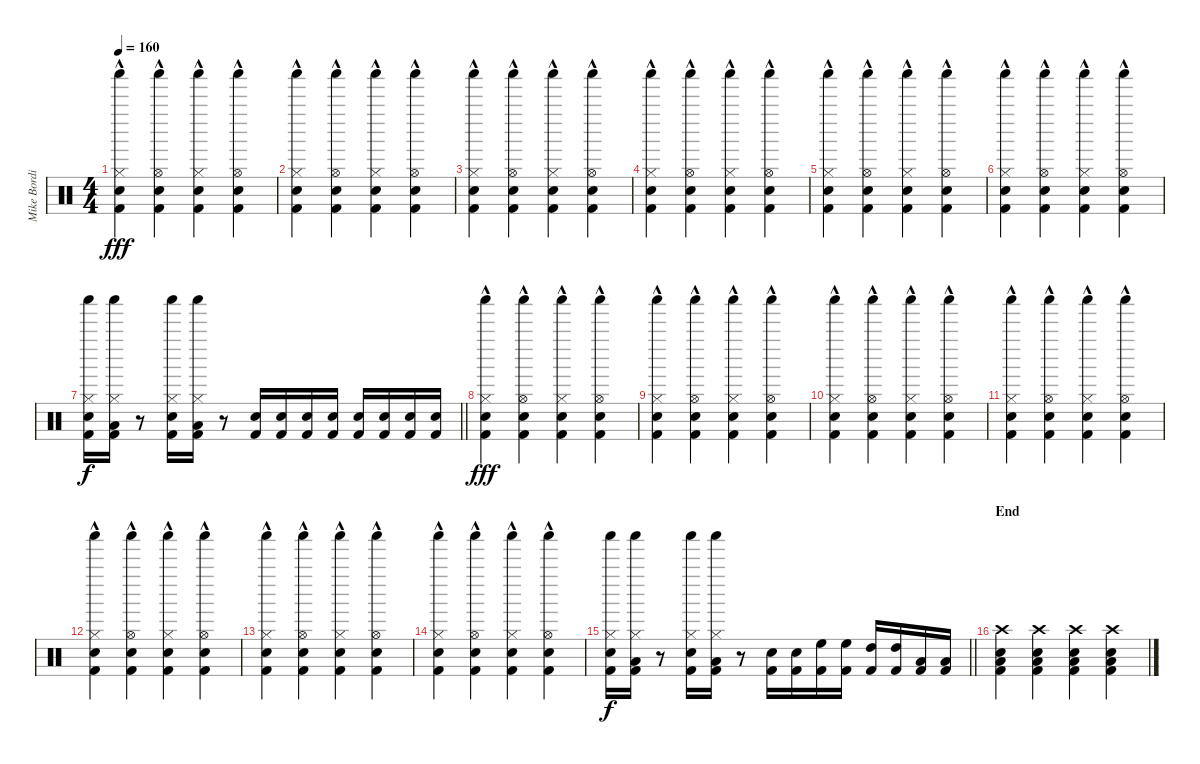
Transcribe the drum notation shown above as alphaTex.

\track ("Mike Bordin - Percussion" "Mike Bordi") {instrument percussion}
\staff {score}
\articulation defaults
\ts (4 4)
\tempo 160
\clef neutral
\ks c
("Shaker (hit)" "Snare (hit) 2" "Hi-Hat (closed)"{hac} "Kick (hit) 2").4{dy fff} ("Shaker (hit)" "Snare (hit) 2" "Hi-Hat (open)"{hac} "Kick (hit) 2").4 ("Shaker (hit)" "Snare (hit) 2" "Hi-Hat (closed)"{hac} "Kick (hit) 2").4 ("Shaker (hit)" "Snare (hit) 2" "Hi-Hat (open)"{hac} "Kick (hit) 2").4 |
("Shaker (hit)" "Snare (hit) 2" "Hi-Hat (closed)"{hac} "Kick (hit) 2").4 ("Shaker (hit)" "Snare (hit) 2" "Hi-Hat (open)"{hac} "Kick (hit) 2").4 ("Shaker (hit)" "Snare (hit) 2" "Hi-Hat (closed)"{hac} "Kick (hit) 2").4 ("Shaker (hit)" "Snare (hit) 2" "Hi-Hat (open)"{hac} "Kick (hit) 2").4 |
("Shaker (hit)" "Snare (hit) 2" "Hi-Hat (closed)"{hac} "Kick (hit) 2").4 ("Shaker (hit)" "Snare (hit) 2" "Hi-Hat (open)"{hac} "Kick (hit) 2").4 ("Shaker (hit)" "Snare (hit) 2" "Hi-Hat (closed)"{hac} "Kick (hit) 2").4 ("Shaker (hit)" "Snare (hit) 2" "Hi-Hat (open)"{hac} "Kick (hit) 2").4 |
("Shaker (hit)" "Snare (hit) 2" "Hi-Hat (closed)"{hac} "Kick (hit) 2").4 ("Shaker (hit)" "Snare (hit) 2" "Hi-Hat (open)"{hac} "Kick (hit) 2").4 ("Shaker (hit)" "Snare (hit) 2" "Hi-Hat (closed)"{hac} "Kick (hit) 2").4 ("Shaker (hit)" "Snare (hit) 2" "Hi-Hat (open)"{hac} "Kick (hit) 2").4 |
("Shaker (hit)" "Snare (hit) 2" "Hi-Hat (closed)"{hac} "Kick (hit) 2").4 ("Shaker (hit)" "Snare (hit) 2" "Hi-Hat (open)"{hac} "Kick (hit) 2").4 ("Shaker (hit)" "Snare (hit) 2" "Hi-Hat (closed)"{hac} "Kick (hit) 2").4 ("Shaker (hit)" "Snare (hit) 2" "Hi-Hat (open)"{hac} "Kick (hit) 2").4 |
("Shaker (hit)" "Snare (hit) 2" "Hi-Hat (closed)"{hac} "Kick (hit) 2").4 ("Shaker (hit)" "Snare (hit) 2" "Hi-Hat (open)"{hac} "Kick (hit) 2").4 ("Shaker (hit)" "Snare (hit) 2" "Hi-Hat (closed)"{hac} "Kick (hit) 2").4 ("Shaker (hit)" "Snare (hit) 2" "Hi-Hat (open)"{hac} "Kick (hit) 2").4 |
\barLineRight lightlight
("Snare (hit) 2" "Hi-Hat (closed)" "Shaker (hit)" "Kick (hit) 2").16{dy f} ("Low Tom (hit)" "Hi-Hat (closed)" "Shaker (hit)" "Kick (hit) 2").16 r.8 ("Snare (hit) 2" "Hi-Hat (closed)" "Shaker (hit)" "Kick (hit) 2").16 ("Low Tom (hit)" "Hi-Hat (closed)" "Shaker (hit)" "Kick (hit) 2").16 r.8 ("Snare (hit) 2" "Kick (hit) 2").16 ("Snare (hit) 2" "Kick (hit) 2").16 ("Snare (hit) 2" "Kick (hit) 2").16 ("Snare (hit) 2" "Kick (hit) 2").16 ("Snare (hit) 2" "Kick (hit) 2").16 ("Snare (hit) 2" "Kick (hit) 2").16 ("Snare (hit) 2" "Kick (hit) 2").16 ("Snare (hit) 2" "Kick (hit) 2").16 |
\section ("" "")
("Shaker (hit)" "Snare (hit) 2" "Hi-Hat (closed)"{hac} "Kick (hit) 2").4{dy fff} ("Shaker (hit)" "Snare (hit) 2" "Hi-Hat (open)"{hac} "Kick (hit) 2").4 ("Shaker (hit)" "Snare (hit) 2" "Hi-Hat (closed)"{hac} "Kick (hit) 2").4 ("Shaker (hit)" "Snare (hit) 2" "Hi-Hat (open)"{hac} "Kick (hit) 2").4 |
("Shaker (hit)" "Snare (hit) 2" "Hi-Hat (closed)"{hac} "Kick (hit) 2").4 ("Shaker (hit)" "Snare (hit) 2" "Hi-Hat (open)"{hac} "Kick (hit) 2").4 ("Shaker (hit)" "Snare (hit) 2" "Hi-Hat (closed)"{hac} "Kick (hit) 2").4 ("Shaker (hit)" "Snare (hit) 2" "Hi-Hat (open)"{hac} "Kick (hit) 2").4 |
("Shaker (hit)" "Snare (hit) 2" "Hi-Hat (closed)"{hac} "Kick (hit) 2").4 ("Shaker (hit)" "Snare (hit) 2" "Hi-Hat (open)"{hac} "Kick (hit) 2").4 ("Shaker (hit)" "Snare (hit) 2" "Hi-Hat (closed)"{hac} "Kick (hit) 2").4 ("Shaker (hit)" "Snare (hit) 2" "Hi-Hat (open)"{hac} "Kick (hit) 2").4 |
("Shaker (hit)" "Snare (hit) 2" "Hi-Hat (closed)"{hac} "Kick (hit) 2").4 ("Shaker (hit)" "Snare (hit) 2" "Hi-Hat (open)"{hac} "Kick (hit) 2").4 ("Shaker (hit)" "Snare (hit) 2" "Hi-Hat (closed)"{hac} "Kick (hit) 2").4 ("Shaker (hit)" "Snare (hit) 2" "Hi-Hat (open)"{hac} "Kick (hit) 2").4 |
("Shaker (hit)" "Snare (hit) 2" "Hi-Hat (closed)"{hac} "Kick (hit) 2").4 ("Shaker (hit)" "Snare (hit) 2" "Hi-Hat (open)"{hac} "Kick (hit) 2").4 ("Shaker (hit)" "Snare (hit) 2" "Hi-Hat (closed)"{hac} "Kick (hit) 2").4 ("Shaker (hit)" "Snare (hit) 2" "Hi-Hat (open)"{hac} "Kick (hit) 2").4 |
("Shaker (hit)" "Snare (hit) 2" "Hi-Hat (closed)"{hac} "Kick (hit) 2").4 ("Shaker (hit)" "Snare (hit) 2" "Hi-Hat (open)"{hac} "Kick (hit) 2").4 ("Shaker (hit)" "Snare (hit) 2" "Hi-Hat (closed)"{hac} "Kick (hit) 2").4 ("Shaker (hit)" "Snare (hit) 2" "Hi-Hat (open)"{hac} "Kick (hit) 2").4 |
("Shaker (hit)" "Snare (hit) 2" "Hi-Hat (closed)"{hac} "Kick (hit) 2").4 ("Shaker (hit)" "Snare (hit) 2" "Hi-Hat (open)"{hac} "Kick (hit) 2").4 ("Shaker (hit)" "Snare (hit) 2" "Hi-Hat (closed)"{hac} "Kick (hit) 2").4 ("Shaker (hit)" "Snare (hit) 2" "Hi-Hat (open)"{hac} "Kick (hit) 2").4 |
\barLineRight lightlight
("Snare (hit) 2" "Hi-Hat (closed)" "Shaker (hit)" "Kick (hit) 2").16{dy f} ("Low Tom (hit)" "Hi-Hat (closed)" "Shaker (hit)" "Kick (hit) 2").16 r.8 ("Snare (hit) 2" "Hi-Hat (closed)" "Shaker (hit)" "Kick (hit) 2").16 ("Low Tom (hit)" "Hi-Hat (closed)" "Shaker (hit)" "Kick (hit) 2").16 r.8 ("Snare (hit) 2" "Kick (hit) 2").16 ("Snare (hit) 2" "Kick (hit) 2").16 ("High Floor Tom (hit)" "Kick (hit) 2").16 ("High Floor Tom (hit)" "Kick (hit) 2").16 ("High Tom (hit)" "Kick (hit) 2").16 ("High Tom (hit)" "Kick (hit) 2").16 ("Low Floor Tom (hit)" "Kick (hit) 2").16 ("Low Floor Tom (hit)" "Kick (hit) 2").16 |
\section ("" "End")
("Crash high (hit)" "Snare (hit) 2" "Low Floor Tom (hit)" "Kick (hit) 2").4 ("Crash high (hit)" "Snare (hit) 2" "Low Floor Tom (hit)" "Kick (hit) 2").4 ("Crash high (hit)" "Snare (hit) 2" "Low Floor Tom (hit)" "Kick (hit) 2").4 ("Crash high (hit)" "Snare (hit) 2" "Low Floor Tom (hit)" "Kick (hit) 2").4
